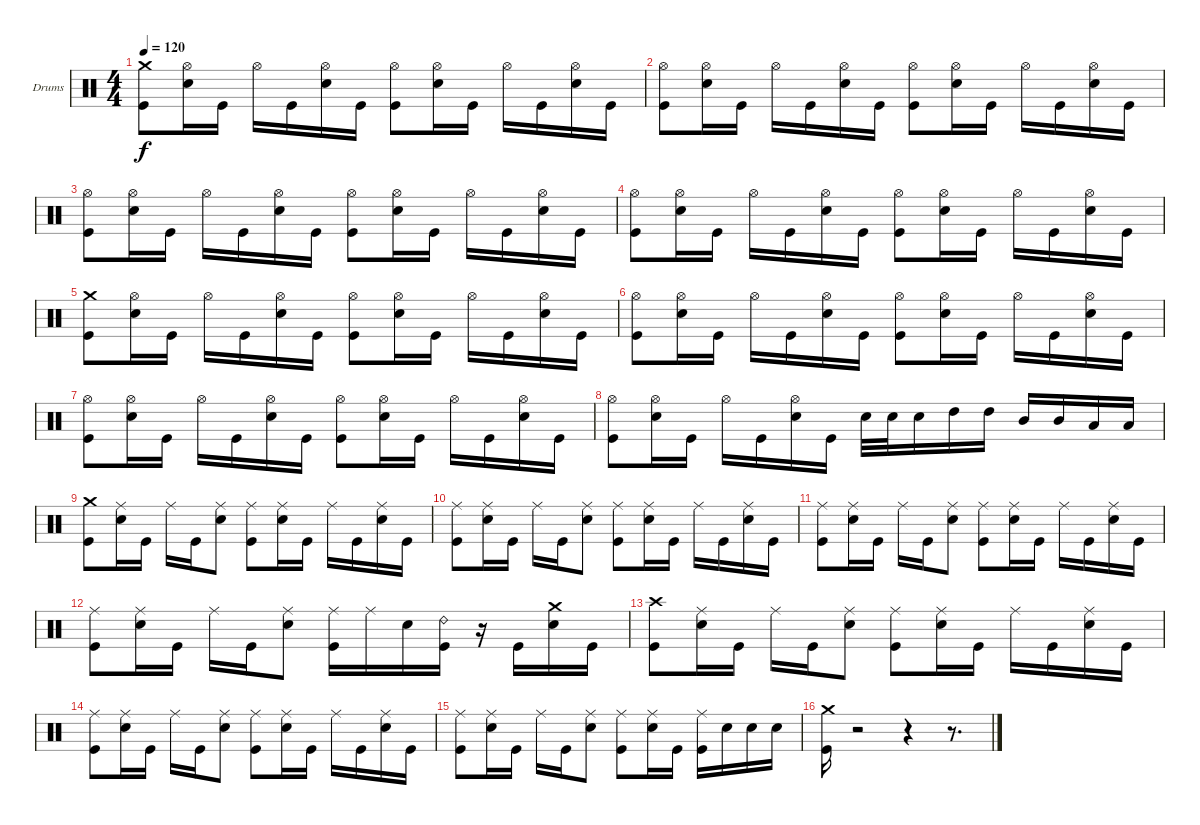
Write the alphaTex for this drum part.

\bracketExtendMode groupsimilarinstruments
\firstSystemTrackNameOrientation horizontal
\otherSystemsTrackNameOrientation horizontal
\track ("Drumkit" "Drums") {instrument percussion}
\staff {score}
\articulation defaults
\ts (4 4)
\tempo 120
\clef neutral
\ks c
("Crash medium (hit)" "Kick (hit)").8{dy f} ("Hi-Hat (open)" "Snare (hit) 2").16 "Kick (hit)".16 "Hi-Hat (open)".16 "Kick (hit)".16 ("Hi-Hat (open)" "Snare (hit) 2").16 "Kick (hit)".16 ("Hi-Hat (open)" "Kick (hit)").8 ("Hi-Hat (open)" "Snare (hit) 2").16 "Kick (hit)".16 "Hi-Hat (open)".16 "Kick (hit)".16 ("Hi-Hat (open)" "Snare (hit) 2").16 "Kick (hit)".16 |
("Hi-Hat (open)" "Kick (hit)").8 ("Hi-Hat (open)" "Snare (hit) 2").16 "Kick (hit)".16 "Hi-Hat (open)".16 "Kick (hit)".16 ("Hi-Hat (open)" "Snare (hit) 2").16 "Kick (hit)".16 ("Hi-Hat (open)" "Kick (hit)").8 ("Hi-Hat (open)" "Snare (hit) 2").16 "Kick (hit)".16 "Hi-Hat (open)".16 "Kick (hit)".16 ("Hi-Hat (open)" "Snare (hit) 2").16 "Kick (hit)".16 |
("Hi-Hat (open)" "Kick (hit)").8 ("Hi-Hat (open)" "Snare (hit) 2").16 "Kick (hit)".16 "Hi-Hat (open)".16 "Kick (hit)".16 ("Hi-Hat (open)" "Snare (hit) 2").16 "Kick (hit)".16 ("Hi-Hat (open)" "Kick (hit)").8 ("Hi-Hat (open)" "Snare (hit) 2").16 "Kick (hit)".16 "Hi-Hat (open)".16 "Kick (hit)".16 ("Hi-Hat (open)" "Snare (hit) 2").16 "Kick (hit)".16 |
("Hi-Hat (open)" "Kick (hit)").8 ("Hi-Hat (open)" "Snare (hit) 2").16 "Kick (hit)".16 "Hi-Hat (open)".16 "Kick (hit)".16 ("Hi-Hat (open)" "Snare (hit) 2").16 "Kick (hit)".16 ("Hi-Hat (open)" "Kick (hit)").8 ("Hi-Hat (open)" "Snare (hit) 2").16 "Kick (hit)".16 "Hi-Hat (open)".16 "Kick (hit)".16 ("Hi-Hat (open)" "Snare (hit) 2").16 "Kick (hit)".16 |
("Crash medium (hit)" "Kick (hit)").8 ("Hi-Hat (open)" "Snare (hit) 2").16 "Kick (hit)".16 "Hi-Hat (open)".16 "Kick (hit)".16 ("Hi-Hat (open)" "Snare (hit) 2").16 "Kick (hit)".16 ("Hi-Hat (open)" "Kick (hit)").8 ("Hi-Hat (open)" "Snare (hit) 2").16 "Kick (hit)".16 "Hi-Hat (open)".16 "Kick (hit)".16 ("Hi-Hat (open)" "Snare (hit) 2").16 "Kick (hit)".16 |
("Hi-Hat (open)" "Kick (hit)").8 ("Hi-Hat (open)" "Snare (hit) 2").16 "Kick (hit)".16 "Hi-Hat (open)".16 "Kick (hit)".16 ("Hi-Hat (open)" "Snare (hit) 2").16 "Kick (hit)".16 ("Hi-Hat (open)" "Kick (hit)").8 ("Hi-Hat (open)" "Snare (hit) 2").16 "Kick (hit)".16 "Hi-Hat (open)".16 "Kick (hit)".16 ("Hi-Hat (open)" "Snare (hit) 2").16 "Kick (hit)".16 |
("Hi-Hat (open)" "Kick (hit)").8 ("Hi-Hat (open)" "Snare (hit) 2").16 "Kick (hit)".16 "Hi-Hat (open)".16 "Kick (hit)".16 ("Hi-Hat (open)" "Snare (hit) 2").16 "Kick (hit)".16 ("Hi-Hat (open)" "Kick (hit)").8 ("Hi-Hat (open)" "Snare (hit) 2").16 "Kick (hit)".16 "Hi-Hat (open)".16 "Kick (hit)".16 ("Hi-Hat (open)" "Snare (hit) 2").16 "Kick (hit)".16 |
("Hi-Hat (open)" "Kick (hit)").8 ("Hi-Hat (open)" "Snare (hit) 2").16 "Kick (hit)".16 "Hi-Hat (open)".16 "Kick (hit)".16 ("Hi-Hat (open)" "Snare (hit) 2").16 "Kick (hit)".16 "Snare (hit) 2".32 "Snare (hit) 2".32 "Snare (hit) 2".16 "High Tom (hit)".16 "High Tom (hit)".16 "Mid Tom (hit)".16 "Mid Tom (hit)".16 "Low Tom (hit)".16 "Low Tom (hit)".16 |
("Crash medium (hit)" "Kick (hit)").8 ("Ride (middle)" "Snare (hit) 2").16 "Kick (hit)".16 "Ride (middle)".16 "Kick (hit)".16 ("Ride (middle)" "Snare (hit) 2").8 ("Ride (middle)" "Kick (hit)").8 ("Ride (middle)" "Snare (hit) 2").16 "Kick (hit)".16 "Ride (middle)".16 "Kick (hit)".16 ("Ride (middle)" "Snare (hit) 2").16 "Kick (hit)".16 |
("Ride (middle)" "Kick (hit)").8 ("Ride (middle)" "Snare (hit) 2").16 "Kick (hit)".16 "Ride (middle)".16 "Kick (hit)".16 ("Ride (middle)" "Snare (hit) 2").8 ("Ride (middle)" "Kick (hit)").8 ("Ride (middle)" "Snare (hit) 2").16 "Kick (hit)".16 "Ride (middle)".16 "Kick (hit)".16 ("Ride (middle)" "Snare (hit) 2").16 "Kick (hit)".16 |
("Ride (middle)" "Kick (hit)").8 ("Ride (middle)" "Snare (hit) 2").16 "Kick (hit)".16 "Ride (middle)".16 "Kick (hit)".16 ("Ride (middle)" "Snare (hit) 2").8 ("Ride (middle)" "Kick (hit)").8 ("Ride (middle)" "Snare (hit) 2").16 "Kick (hit)".16 "Ride (middle)".16 "Kick (hit)".16 ("Ride (middle)" "Snare (hit) 2").16 "Kick (hit)".16 |
("Ride (middle)" "Kick (hit)").8 ("Ride (middle)" "Snare (hit) 2").16 "Kick (hit)".16 "Ride (middle)".16 "Kick (hit)".16 ("Ride (middle)" "Snare (hit) 2").8 ("Ride (middle)" "Kick (hit)").16 "Ride (middle)".16 "Snare (hit) 2".16 ("Ride (bell) 2" "Kick (hit)").16 r.16 "Kick (hit)".16 ("Crash medium (hit)" "Snare (hit) 2").16 "Kick (hit)".16 |
("Crash high (hit)" "Kick (hit)").8 ("Ride (middle)" "Snare (hit) 2").16 "Kick (hit)".16 "Ride (middle)".16 "Kick (hit)".16 ("Ride (middle)" "Snare (hit) 2").8 ("Ride (middle)" "Kick (hit)").8 ("Ride (middle)" "Snare (hit) 2").16 "Kick (hit)".16 "Ride (middle)".16 "Kick (hit)".16 ("Ride (middle)" "Snare (hit) 2").16 "Kick (hit)".16 |
("Ride (middle)" "Kick (hit)").8 ("Ride (middle)" "Snare (hit) 2").16 "Kick (hit)".16 "Ride (middle)".16 "Kick (hit)".16 ("Ride (middle)" "Snare (hit) 2").8 ("Ride (middle)" "Kick (hit)").8 ("Ride (middle)" "Snare (hit) 2").16 "Kick (hit)".16 "Ride (middle)".16 "Kick (hit)".16 ("Ride (middle)" "Snare (hit) 2").16 "Kick (hit)".16 |
("Ride (middle)" "Kick (hit)").8 ("Ride (middle)" "Snare (hit) 2").16 "Kick (hit)".16 "Ride (middle)".16 "Kick (hit)".16 ("Ride (middle)" "Snare (hit) 2").8 ("Ride (middle)" "Kick (hit)").8 ("Ride (middle)" "Snare (hit) 2").16 "Kick (hit)".16 ("Ride (middle)" "Kick (hit)").16 "Snare (hit) 2".16 "Snare (hit) 2".16 "Snare (hit) 2".16 |
("Crash medium (hit)" "Kick (hit)").16 r.2 r.4 r.8{d}
